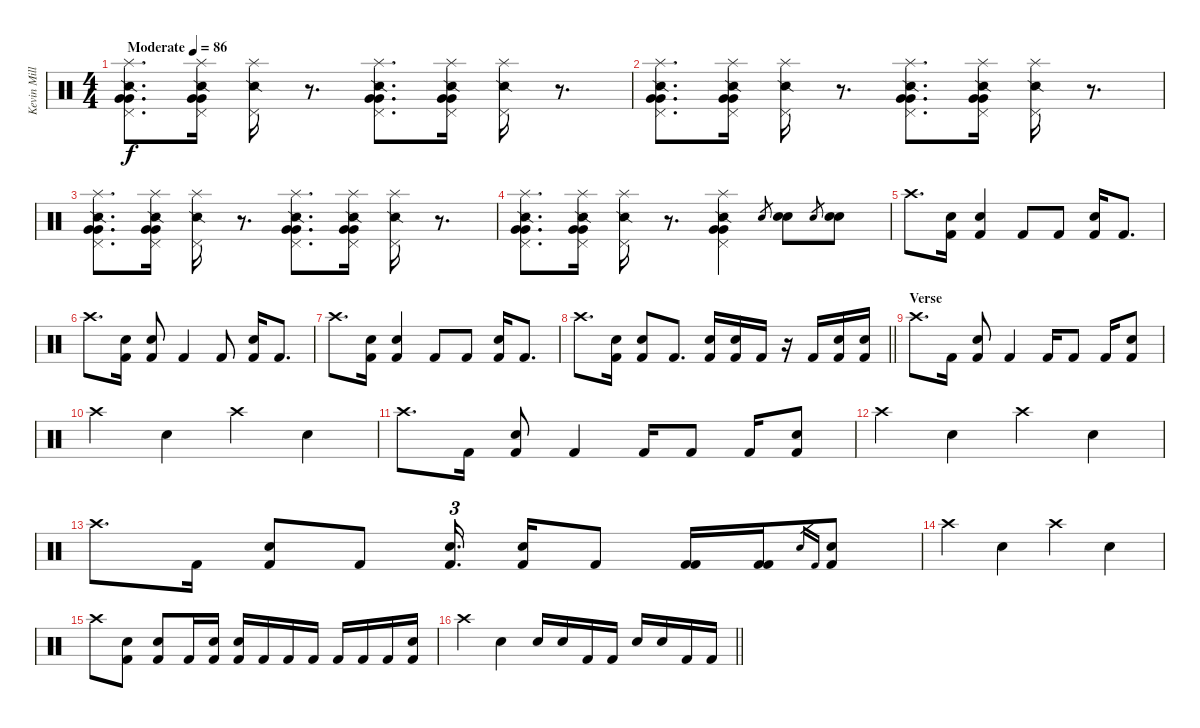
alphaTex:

\track ("Kevin Miller (Drums)" "Kevin Mill") {instrument percussion}
\staff {score}
\articulation defaults
\ts (4 4)
\tempo (86 "Moderate")
\clef neutral
\ks c
("Pedal Hi-Hat (hit)" "Snare (side stick) 2" "Very Low Tom (hit)" "Very Low Tom (hit)" "Splash (hit)").8{d dy f} ("Pedal Hi-Hat (hit)" "Snare (side stick) 2" "Very Low Tom (hit)" "Very Low Tom (hit)" "Splash (hit)").16 ("Pedal Hi-Hat (hit)" "Snare (side stick) 2" "Splash (hit)").16 r.8{d} ("Pedal Hi-Hat (hit)" "Snare (side stick) 2" "Very Low Tom (hit)" "Very Low Tom (hit)" "Splash (hit)").8{d} ("Pedal Hi-Hat (hit)" "Snare (side stick) 2" "Very Low Tom (hit)" "Very Low Tom (hit)" "Splash (hit)").16 ("Pedal Hi-Hat (hit)" "Snare (side stick) 2" "Splash (hit)").16 r.8{d} |
("Pedal Hi-Hat (hit)" "Snare (side stick) 2" "Very Low Tom (hit)" "Very Low Tom (hit)" "Splash (hit)").8{d} ("Pedal Hi-Hat (hit)" "Snare (side stick) 2" "Very Low Tom (hit)" "Very Low Tom (hit)" "Splash (hit)").16 ("Pedal Hi-Hat (hit)" "Snare (side stick) 2" "Splash (hit)").16 r.8{d} ("Pedal Hi-Hat (hit)" "Snare (side stick) 2" "Very Low Tom (hit)" "Very Low Tom (hit)" "Splash (hit)").8{d} ("Pedal Hi-Hat (hit)" "Snare (side stick) 2" "Very Low Tom (hit)" "Very Low Tom (hit)" "Splash (hit)").16 ("Pedal Hi-Hat (hit)" "Snare (side stick) 2" "Splash (hit)").16 r.8{d} |
("Pedal Hi-Hat (hit)" "Snare (side stick) 2" "Very Low Tom (hit)" "Very Low Tom (hit)" "Splash (hit)").8{d} ("Pedal Hi-Hat (hit)" "Snare (side stick) 2" "Very Low Tom (hit)" "Very Low Tom (hit)" "Splash (hit)").16 ("Pedal Hi-Hat (hit)" "Snare (side stick) 2" "Splash (hit)").16 r.8{d} ("Pedal Hi-Hat (hit)" "Snare (side stick) 2" "Very Low Tom (hit)" "Very Low Tom (hit)" "Splash (hit)").8{d} ("Pedal Hi-Hat (hit)" "Snare (side stick) 2" "Very Low Tom (hit)" "Very Low Tom (hit)" "Splash (hit)").16 ("Pedal Hi-Hat (hit)" "Snare (side stick) 2" "Splash (hit)").16 r.8{d} |
("Pedal Hi-Hat (hit)" "Snare (side stick) 2" "Very Low Tom (hit)" "Very Low Tom (hit)" "Splash (hit)").8{d} ("Pedal Hi-Hat (hit)" "Snare (side stick) 2" "Very Low Tom (hit)" "Very Low Tom (hit)" "Splash (hit)").16 ("Pedal Hi-Hat (hit)" "Snare (side stick) 2" "Splash (hit)").16 r.8{d} ("Pedal Hi-Hat (hit)" "Snare (side stick) 2" "Very Low Tom (hit)" "Very Low Tom (hit)" "Splash (hit)").4 "Electric Snare (hit)".8{gr} ("Electric Snare (hit)" "Electric Snare (hit)").8 "Electric Snare (hit)".8{gr} ("Electric Snare (hit)" "Electric Snare (hit)").8 |
"Crash high (hit)".8{d} ("Electric Snare (hit)" "Kick (hit) 2").16 ("Electric Snare (hit)" "Kick (hit) 2").4 "Kick (hit) 2".8 "Kick (hit) 2".8 ("Electric Snare (hit)" "Kick (hit) 2").16 "Kick (hit) 2".8{d} |
"Crash high (hit)".8{d} ("Electric Snare (hit)" "Kick (hit) 2").16 ("Electric Snare (hit)" "Kick (hit) 2").8 "Kick (hit) 2".4 "Kick (hit) 2".8 ("Electric Snare (hit)" "Kick (hit) 2").16 "Kick (hit) 2".8{d} |
"Crash high (hit)".8{d} ("Electric Snare (hit)" "Kick (hit) 2").16 ("Electric Snare (hit)" "Kick (hit) 2").4 "Kick (hit) 2".8 "Kick (hit) 2".8 ("Electric Snare (hit)" "Kick (hit) 2").16 "Kick (hit) 2".8{d} |
\barLineRight lightlight "Crash high (hit)".8{d}
("Electric Snare (hit)" "Kick (hit) 2").16 ("Electric Snare (hit)" "Kick (hit) 2").8 "Kick (hit) 2".8{d} ("Electric Snare (hit)" "Kick (hit) 2").16 ("Electric Snare (hit)" "Kick (hit) 2").16 "Kick (hit) 2".16 r.16 "Kick (hit) 2".16 ("Electric Snare (hit)" "Kick (hit) 2").16 ("Electric Snare (hit)" "Kick (hit) 2").16 |
\section ("" "Verse")
"Crash high (hit)".8{d} "Kick (hit) 2".16 ("Electric Snare (hit)" "Kick (hit) 2").8 "Kick (hit) 2".4 "Kick (hit) 2".16 "Kick (hit) 2".8 "Kick (hit) 2".16 ("Electric Snare (hit)" "Kick (hit) 2").8 |
"Crash high (hit)".4 "Electric Snare (hit)".4 "Crash high (hit)".4 "Electric Snare (hit)".4 |
"Crash high (hit)".8{d} "Kick (hit) 2".16 ("Electric Snare (hit)" "Kick (hit) 2").8 "Kick (hit) 2".4 "Kick (hit) 2".16 "Kick (hit) 2".8 "Kick (hit) 2".16 ("Electric Snare (hit)" "Kick (hit) 2").8 |
"Crash high (hit)".4 "Electric Snare (hit)".4 "Crash high (hit)".4 "Electric Snare (hit)".4 |
"Crash high (hit)".8{d} "Kick (hit) 2".16 ("Electric Snare (hit)" "Kick (hit) 2").8 "Kick (hit) 2".8 ("Electric Snare (hit)" "Kick (hit) 2").16{d tu (3 2) beam splitsecondary} ("Electric Snare (hit)" "Kick (hit) 2").16 "Kick (hit) 2".8 ("Kick (hit) 2" "Kick (hit) 2").16 ("Kick (hit) 2" "Kick (hit) 2").16 "Electric Snare (hit)".16{gr} "Kick (hit) 2".16{gr} ("Electric Snare (hit)" "Kick (hit) 2").8 |
"Crash high (hit)".4 "Electric Snare (hit)".4 "Crash high (hit)".4 "Electric Snare (hit)".4 |
"Crash high (hit)".8 ("Electric Snare (hit)" "Kick (hit) 2").8 ("Electric Snare (hit)" "Kick (hit) 2").8 "Kick (hit) 2".16 ("Electric Snare (hit)" "Kick (hit) 2").16 ("Electric Snare (hit)" "Kick (hit) 2").16 "Kick (hit) 2".16 "Kick (hit) 2".16 "Kick (hit) 2".16 "Kick (hit) 2".16 "Kick (hit) 2".16 "Kick (hit) 2".16 ("Electric Snare (hit)" "Kick (hit) 2").16 |
\barLineRight lightlight "Crash high (hit)".4 "Electric Snare (hit)".4 "Electric Snare (hit)".16 "Electric Snare (hit)".16 "Kick (hit) 2".16 "Kick (hit) 2".16 "Electric Snare (hit)".16 "Electric Snare (hit)".16 "Kick (hit) 2".16 "Kick (hit) 2".16
